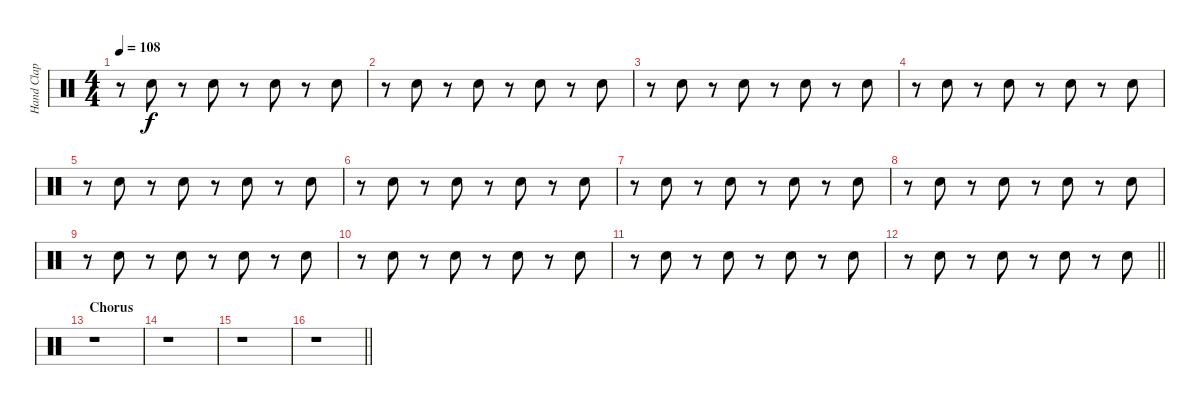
\track ("Hand Clap" "Hand Clap") {instrument percussion}
\staff {score}
\articulation defaults
\ts (4 4)
\tempo 108
\clef neutral
\ks c
r.8{dy f} "Hand Clap (hit)".8 r.8 "Hand Clap (hit)".8 r.8 "Hand Clap (hit)".8 r.8 "Hand Clap (hit)".8 |
r.8 "Hand Clap (hit)".8 r.8 "Hand Clap (hit)".8 r.8 "Hand Clap (hit)".8 r.8 "Hand Clap (hit)".8 |
r.8 "Hand Clap (hit)".8 r.8 "Hand Clap (hit)".8 r.8 "Hand Clap (hit)".8 r.8 "Hand Clap (hit)".8 |
r.8 "Hand Clap (hit)".8 r.8 "Hand Clap (hit)".8 r.8 "Hand Clap (hit)".8 r.8 "Hand Clap (hit)".8 |
r.8 "Hand Clap (hit)".8 r.8 "Hand Clap (hit)".8 r.8 "Hand Clap (hit)".8 r.8 "Hand Clap (hit)".8 |
r.8 "Hand Clap (hit)".8 r.8 "Hand Clap (hit)".8 r.8 "Hand Clap (hit)".8 r.8 "Hand Clap (hit)".8 |
r.8 "Hand Clap (hit)".8 r.8 "Hand Clap (hit)".8 r.8 "Hand Clap (hit)".8 r.8 "Hand Clap (hit)".8 |
r.8 "Hand Clap (hit)".8 r.8 "Hand Clap (hit)".8 r.8 "Hand Clap (hit)".8 r.8 "Hand Clap (hit)".8 |
r.8 "Hand Clap (hit)".8 r.8 "Hand Clap (hit)".8 r.8 "Hand Clap (hit)".8 r.8 "Hand Clap (hit)".8 |
r.8 "Hand Clap (hit)".8 r.8 "Hand Clap (hit)".8 r.8 "Hand Clap (hit)".8 r.8 "Hand Clap (hit)".8 |
r.8 "Hand Clap (hit)".8 r.8 "Hand Clap (hit)".8 r.8 "Hand Clap (hit)".8 r.8 "Hand Clap (hit)".8 |
\barLineRight lightlight
r.8 "Hand Clap (hit)".8 r.8 "Hand Clap (hit)".8 r.8 "Hand Clap (hit)".8 r.8 "Hand Clap (hit)".8 |
\section ("" "Chorus")
r.1 |
r.1 |
r.1 |
\barLineRight lightlight
r.1
